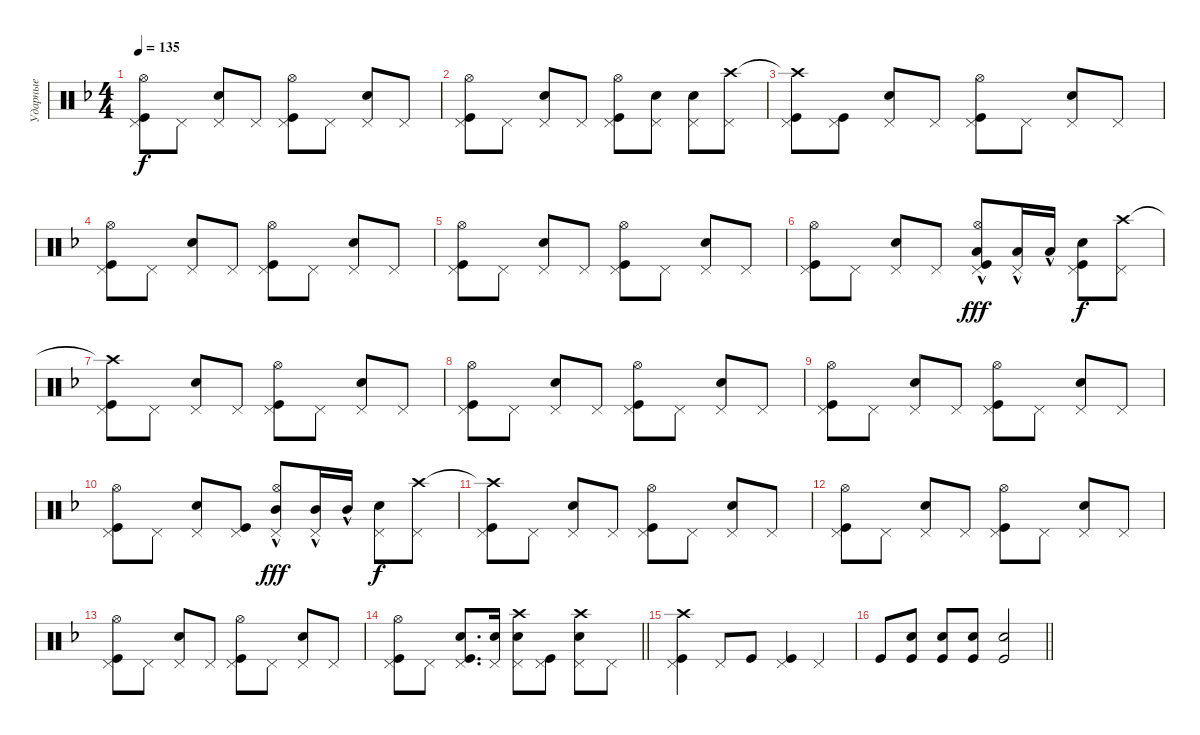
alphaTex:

\track ("Ударные" "Ударные") {instrument percussion}
\staff {score}
\articulation defaults
\ts (4 4)
\tempo 135
\clef neutral
\ks dminor
("Pedal Hi-Hat (hit)" "Kick (hit)" "Hi-Hat (open)").8{dy f} "Pedal Hi-Hat (hit)".8 ("Pedal Hi-Hat (hit)" "Snare (hit) 2").8 "Pedal Hi-Hat (hit)".8 ("Pedal Hi-Hat (hit)" "Kick (hit)" "Hi-Hat (open)").8 "Pedal Hi-Hat (hit)".8 ("Pedal Hi-Hat (hit)" "Snare (hit) 2").8 "Pedal Hi-Hat (hit)".8 |
("Pedal Hi-Hat (hit)" "Kick (hit)" "Hi-Hat (open)").8 "Pedal Hi-Hat (hit)".8 ("Pedal Hi-Hat (hit)" "Snare (hit) 2").8 "Pedal Hi-Hat (hit)".8 ("Pedal Hi-Hat (hit)" "Kick (hit)" "Hi-Hat (open)").8 ("Pedal Hi-Hat (hit)" "Snare (hit) 2").8 ("Pedal Hi-Hat (hit)" "Snare (hit) 2").8 ("Pedal Hi-Hat (hit)" "Crash high (hit)").8 |
("Pedal Hi-Hat (hit)" "Crash high (hit)"{t} "Kick (hit)").8 ("Pedal Hi-Hat (hit)" "Kick (hit)").8 ("Pedal Hi-Hat (hit)" "Snare (hit) 2").8 "Pedal Hi-Hat (hit)".8 ("Pedal Hi-Hat (hit)" "Kick (hit)" "Hi-Hat (open)").8 "Pedal Hi-Hat (hit)".8 ("Pedal Hi-Hat (hit)" "Snare (hit) 2").8 "Pedal Hi-Hat (hit)".8 |
("Pedal Hi-Hat (hit)" "Kick (hit)" "Hi-Hat (open)").8 "Pedal Hi-Hat (hit)".8 ("Pedal Hi-Hat (hit)" "Snare (hit) 2").8 "Pedal Hi-Hat (hit)".8 ("Pedal Hi-Hat (hit)" "Kick (hit)" "Hi-Hat (open)").8 "Pedal Hi-Hat (hit)".8 ("Pedal Hi-Hat (hit)" "Snare (hit) 2").8 "Pedal Hi-Hat (hit)".8 |
("Pedal Hi-Hat (hit)" "Kick (hit)" "Hi-Hat (open)").8 "Pedal Hi-Hat (hit)".8 ("Pedal Hi-Hat (hit)" "Snare (hit) 2").8 "Pedal Hi-Hat (hit)".8 ("Pedal Hi-Hat (hit)" "Kick (hit)" "Hi-Hat (open)").8 "Pedal Hi-Hat (hit)".8 ("Pedal Hi-Hat (hit)" "Snare (hit) 2").8 "Pedal Hi-Hat (hit)".8 |
("Pedal Hi-Hat (hit)" "Kick (hit)" "Hi-Hat (open)").8 "Pedal Hi-Hat (hit)".8 ("Pedal Hi-Hat (hit)" "Snare (hit) 2").8 "Pedal Hi-Hat (hit)".8 ("Kick (hit)" "Pedal Hi-Hat (hit)" "Low Tom (hit)"{hac} "Hi-Hat (open)").8{dy fff} ("Low Tom (hit)"{hac} "Pedal Hi-Hat (hit)").16 "Low Tom (hit)"{hac}.16 ("Pedal Hi-Hat (hit)" "Kick (hit)" "Snare (hit) 2").8{dy f} ("Crash high (hit)" "Pedal Hi-Hat (hit)").8 |
("Crash high (hit)"{t} "Kick (hit)" "Pedal Hi-Hat (hit)").8 "Pedal Hi-Hat (hit)".8 ("Pedal Hi-Hat (hit)" "Snare (hit) 2").8 "Pedal Hi-Hat (hit)".8 ("Pedal Hi-Hat (hit)" "Kick (hit)" "Hi-Hat (open)").8 "Pedal Hi-Hat (hit)".8 ("Pedal Hi-Hat (hit)" "Snare (hit) 2").8 "Pedal Hi-Hat (hit)".8 |
("Pedal Hi-Hat (hit)" "Kick (hit)" "Hi-Hat (open)").8 "Pedal Hi-Hat (hit)".8 ("Pedal Hi-Hat (hit)" "Snare (hit) 2").8 "Pedal Hi-Hat (hit)".8 ("Pedal Hi-Hat (hit)" "Kick (hit)" "Hi-Hat (open)").8 "Pedal Hi-Hat (hit)".8 ("Pedal Hi-Hat (hit)" "Snare (hit) 2").8 "Pedal Hi-Hat (hit)".8 |
("Pedal Hi-Hat (hit)" "Kick (hit)" "Hi-Hat (open)").8 "Pedal Hi-Hat (hit)".8 ("Pedal Hi-Hat (hit)" "Snare (hit) 2").8 "Pedal Hi-Hat (hit)".8 ("Pedal Hi-Hat (hit)" "Kick (hit)" "Hi-Hat (open)").8 "Pedal Hi-Hat (hit)".8 ("Pedal Hi-Hat (hit)" "Snare (hit) 2").8 "Pedal Hi-Hat (hit)".8 |
("Pedal Hi-Hat (hit)" "Kick (hit)" "Hi-Hat (open)").8 "Pedal Hi-Hat (hit)".8 ("Pedal Hi-Hat (hit)" "Snare (hit) 2").8 ("Pedal Hi-Hat (hit)" "Kick (hit)").8 ("Hi-Hat (open)" "Pedal Hi-Hat (hit)" "Mid Tom (hit)"{hac}).8{dy fff} ("Mid Tom (hit)"{hac} "Pedal Hi-Hat (hit)").16 "Mid Tom (hit)"{hac}.16 ("Snare (hit) 2" "Pedal Hi-Hat (hit)").8{dy f} ("Pedal Hi-Hat (hit)" "Crash high (hit)").8 |
("Pedal Hi-Hat (hit)" "Crash high (hit)"{t} "Kick (hit)").8 "Pedal Hi-Hat (hit)".8 ("Pedal Hi-Hat (hit)" "Snare (hit) 2").8 "Pedal Hi-Hat (hit)".8 ("Pedal Hi-Hat (hit)" "Hi-Hat (open)" "Kick (hit)").8 "Pedal Hi-Hat (hit)".8 ("Pedal Hi-Hat (hit)" "Snare (hit) 2").8 "Pedal Hi-Hat (hit)".8 |
("Pedal Hi-Hat (hit)" "Kick (hit)" "Hi-Hat (open)").8 "Pedal Hi-Hat (hit)".8 ("Pedal Hi-Hat (hit)" "Snare (hit) 2").8 "Pedal Hi-Hat (hit)".8 ("Pedal Hi-Hat (hit)" "Kick (hit)" "Hi-Hat (open)").8 "Pedal Hi-Hat (hit)".8 ("Pedal Hi-Hat (hit)" "Snare (hit) 2").8 "Pedal Hi-Hat (hit)".8 |
("Pedal Hi-Hat (hit)" "Kick (hit)" "Hi-Hat (open)").8 "Pedal Hi-Hat (hit)".8 ("Pedal Hi-Hat (hit)" "Snare (hit) 2").8 "Pedal Hi-Hat (hit)".8 ("Pedal Hi-Hat (hit)" "Kick (hit)" "Hi-Hat (open)").8 "Pedal Hi-Hat (hit)".8 ("Pedal Hi-Hat (hit)" "Snare (hit) 2").8 "Pedal Hi-Hat (hit)".8 |
\barLineRight lightlight
("Pedal Hi-Hat (hit)" "Kick (hit)" "Hi-Hat (open)").8 "Pedal Hi-Hat (hit)".8 ("Pedal Hi-Hat (hit)" "Kick (hit)" "Snare (hit) 2").8{d} ("Pedal Hi-Hat (hit)" "Snare (hit) 2").16 ("Pedal Hi-Hat (hit)" "Crash high (hit)" "Snare (hit) 2").8 ("Pedal Hi-Hat (hit)" "Kick (hit)").8 ("Pedal Hi-Hat (hit)" "Snare (hit) 2" "Crash high (hit)").8 "Pedal Hi-Hat (hit)".8 |
("Pedal Hi-Hat (hit)" "Kick (hit)" "Crash high (hit)").4 "Pedal Hi-Hat (hit)".8 "Kick (hit)".8 ("Pedal Hi-Hat (hit)" "Kick (hit)").4 "Pedal Hi-Hat (hit)".4 |
\barLineRight lightlight "Kick (hit)".8
("Kick (hit)" "Snare (hit) 2").8 ("Kick (hit)" "Snare (hit) 2").8 ("Kick (hit)" "Snare (hit) 2").8 ("Kick (hit)" "Snare (hit) 2").2
